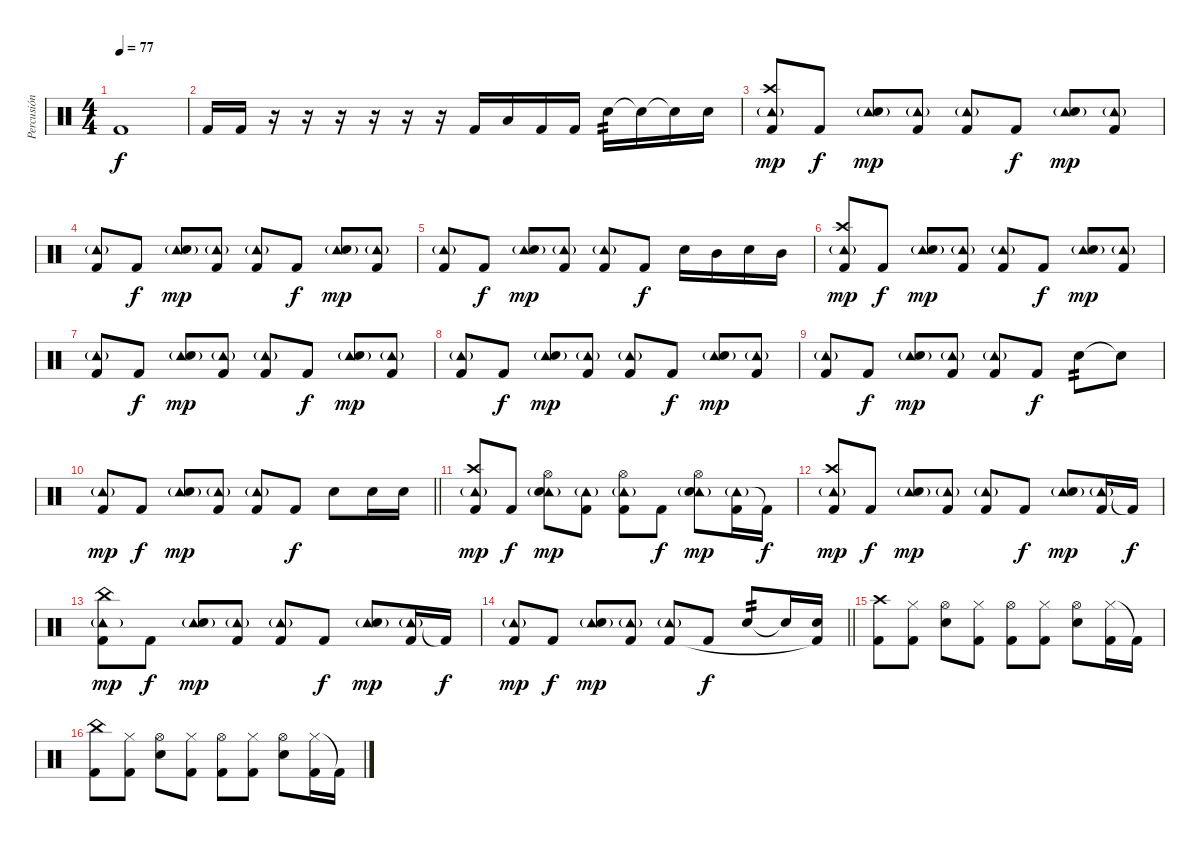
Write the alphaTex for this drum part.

\track ("Percusión" "Percusión") {instrument percussion}
\staff {score}
\articulation defaults
\ts (4 4)
\tempo 77
\clef neutral
\ks c "Kick (hit) 2".1{dy f}
|
"Kick (hit) 2".16 "Kick (hit) 2".16 r.16 r.16 r.16 r.16 r.16 r.16 "Kick (hit) 2".16 "Low Tom (hit)".16 "Kick (hit) 2".16 "Kick (hit) 2".16 "Electric Snare (hit)".16{tp 2} "Electric Snare (hit)"{t}.16 "Snare (hit)"{t}.16 "Electric Snare (hit)".16 |
("Crash high (hit)" "Tambourine (hit)"{g} "Kick (hit) 2").8{dy mp} "Kick (hit) 2".8{dy f} ("Tambourine (hit)"{g} "Electric Snare (hit)").8{dy mp} ("Tambourine (hit)"{g} "Kick (hit) 2").8 ("Tambourine (hit)"{g} "Kick (hit) 2").8 "Kick (hit) 2".8{dy f} ("Tambourine (hit)"{g} "Electric Snare (hit)").8{dy mp} ("Tambourine (hit)"{g} "Kick (hit) 2").8 |
("Tambourine (hit)"{g} "Kick (hit) 2").8 "Kick (hit) 2".8{dy f} ("Tambourine (hit)"{g} "Electric Snare (hit)").8{dy mp} ("Tambourine (hit)"{g} "Kick (hit) 2").8 ("Tambourine (hit)"{g} "Kick (hit) 2").8 "Kick (hit) 2".8{dy f} ("Tambourine (hit)"{g} "Electric Snare (hit)").8{dy mp} ("Tambourine (hit)"{g} "Kick (hit) 2").8 |
("Tambourine (hit)"{g} "Kick (hit) 2").8 "Kick (hit) 2".8{dy f} ("Tambourine (hit)"{g} "Electric Snare (hit)").8{dy mp} ("Tambourine (hit)"{g} "Kick (hit) 2").8 ("Tambourine (hit)"{g} "Kick (hit) 2").8 "Kick (hit) 2".8{dy f} "Electric Snare (hit)".16 "Mid Tom (hit)".16 "Electric Snare (hit)".16 "Mid Tom (hit)".16 |
("Crash high (hit)" "Tambourine (hit)"{g} "Kick (hit) 2").8{dy mp} "Kick (hit) 2".8{dy f} ("Tambourine (hit)"{g} "Electric Snare (hit)").8{dy mp} ("Tambourine (hit)"{g} "Kick (hit) 2").8 ("Tambourine (hit)"{g} "Kick (hit) 2").8 "Kick (hit) 2".8{dy f} ("Tambourine (hit)"{g} "Electric Snare (hit)").8{dy mp} ("Tambourine (hit)"{g} "Kick (hit) 2").8 |
("Tambourine (hit)"{g} "Kick (hit) 2").8 "Kick (hit) 2".8{dy f} ("Tambourine (hit)"{g} "Electric Snare (hit)").8{dy mp} ("Tambourine (hit)"{g} "Kick (hit) 2").8 ("Tambourine (hit)"{g} "Kick (hit) 2").8 "Kick (hit) 2".8{dy f} ("Tambourine (hit)"{g} "Electric Snare (hit)").8{dy mp} ("Tambourine (hit)"{g} "Kick (hit) 2").8 |
("Tambourine (hit)"{g} "Kick (hit) 2").8 "Kick (hit) 2".8{dy f} ("Tambourine (hit)"{g} "Electric Snare (hit)").8{dy mp} ("Tambourine (hit)"{g} "Kick (hit) 2").8 ("Tambourine (hit)"{g} "Kick (hit) 2").8 "Kick (hit) 2".8{dy f} ("Tambourine (hit)"{g} "Electric Snare (hit)").8{dy mp} ("Tambourine (hit)"{g} "Kick (hit) 2").8 |
("Tambourine (hit)"{g} "Kick (hit) 2").8 "Kick (hit) 2".8{dy f} ("Tambourine (hit)"{g} "Electric Snare (hit)").8{dy mp} ("Tambourine (hit)"{g} "Kick (hit) 2").8 ("Tambourine (hit)"{g} "Kick (hit) 2").8 "Kick (hit) 2".8{dy f} "Electric Snare (hit)".8{tp 2} "Snare (hit)"{t}.8 |
\barLineRight lightlight
("Tambourine (hit)"{g} "Kick (hit) 2").8{dy mp} "Kick (hit) 2".8{dy f} ("Tambourine (hit)"{g} "Electric Snare (hit)").8{dy mp} ("Tambourine (hit)"{g} "Kick (hit) 2").8 ("Tambourine (hit)"{g} "Kick (hit) 2").8 "Kick (hit) 2".8{dy f} "Electric Snare (hit)".8 "Electric Snare (hit)".16 "Electric Snare (hit)".16 |
("Crash high (hit)" "Tambourine (hit)"{g} "Kick (hit) 2").8{dy mp} "Kick (hit) 2".8{dy f} ("Hi-Hat (open)" "Tambourine (hit)"{g} "Electric Snare (hit)").8{dy mp} ("Tambourine (hit)"{g} "Kick (hit) 2").8 ("Hi-Hat (open)" "Tambourine (hit)"{g} "Kick (hit) 2").8 "Kick (hit) 2".8{dy f} ("Hi-Hat (open)" "Tambourine (hit)"{g} "Electric Snare (hit)").8{dy mp} ("Tambourine (hit)"{g} "Kick (hit) 2").16 "Kick (hit) 2"{t}.16{dy f} |
("Crash high (hit)" "Tambourine (hit)"{g} "Kick (hit) 2").8{dy mp} "Kick (hit) 2".8{dy f} ("Tambourine (hit)"{g} "Electric Snare (hit)").8{dy mp} ("Tambourine (hit)"{g} "Kick (hit) 2").8 ("Tambourine (hit)"{g} "Kick (hit) 2").8 "Kick (hit) 2".8{dy f} ("Tambourine (hit)"{g} "Electric Snare (hit)").8{dy mp} ("Tambourine (hit)"{g} "Kick (hit) 2").16 "Kick (hit) 2"{t}.16{dy f} |
("China (hit)" "Tambourine (hit)"{g} "Kick (hit) 2").8{dy mp} "Kick (hit) 2".8{dy f} ("Tambourine (hit)"{g} "Electric Snare (hit)").8{dy mp} ("Tambourine (hit)"{g} "Kick (hit) 2").8 ("Tambourine (hit)"{g} "Kick (hit) 2").8 "Kick (hit) 2".8{dy f} ("Tambourine (hit)"{g} "Electric Snare (hit)").8{dy mp} ("Tambourine (hit)"{g} "Kick (hit) 2").16 "Kick (hit) 2"{t}.16{dy f} |
\barLineRight lightlight
("Tambourine (hit)"{g} "Kick (hit) 2").8{dy mp} "Kick (hit) 2".8{dy f} ("Tambourine (hit)"{g} "Electric Snare (hit)").8{dy mp} ("Tambourine (hit)"{g} "Kick (hit) 2").8 ("Tambourine (hit)"{g} "Kick (hit) 2").8 "Kick (hit) 2".8{dy f} "Electric Snare (hit)".8{tp 2} "Snare (hit)"{t}.16 ("Electric Snare (hit)" "Kick (hit) 2"{t}).16 |
("Crash high (hit)" "Kick (hit) 2").8 ("Hi-Hat (closed)" "Kick (hit) 2").8 ("Hi-Hat (open)" "Electric Snare (hit)").8 ("Hi-Hat (closed)" "Kick (hit) 2").8 ("Hi-Hat (open)" "Kick (hit) 2").8 ("Hi-Hat (closed)" "Kick (hit) 2").8 ("Hi-Hat (open)" "Electric Snare (hit)").8 ("Hi-Hat (closed)" "Kick (hit) 2").16 "Kick (hit) 2"{t}.16 |
("China (hit)" "Kick (hit) 2").8 ("Hi-Hat (closed)" "Kick (hit) 2").8 ("Hi-Hat (open)" "Electric Snare (hit)").8 ("Hi-Hat (closed)" "Kick (hit) 2").8 ("Hi-Hat (open)" "Kick (hit) 2").8 ("Hi-Hat (closed)" "Kick (hit) 2").8 ("Hi-Hat (open)" "Electric Snare (hit)").8 ("Hi-Hat (closed)" "Kick (hit) 2").16 "Kick (hit) 2"{t}.16
